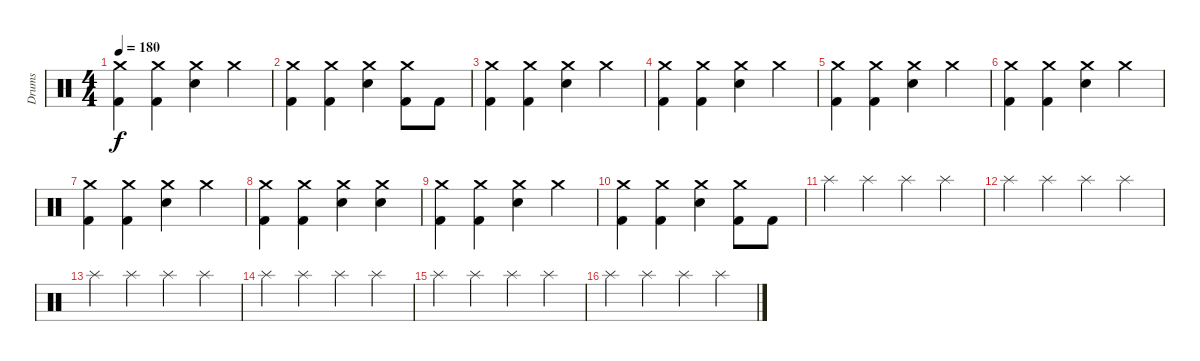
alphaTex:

\track ("Drums" "Drums") {instrument percussion}
\staff {score}
\articulation defaults
\ts (4 4)
\tempo 180
\clef neutral
\ks c
("Crash medium (hit)" "Kick (hit) 2").4{dy f} ("Crash medium (hit)" "Kick (hit) 2").4 ("Crash medium (hit)" "Snare (hit) 2").4 "Crash medium (hit)".4 |
("Crash medium (hit)" "Kick (hit) 2").4 ("Crash medium (hit)" "Kick (hit) 2").4 ("Crash medium (hit)" "Snare (hit) 2").4 ("Crash medium (hit)" "Kick (hit) 2").8 "Kick (hit) 2".8 |
("Crash medium (hit)" "Kick (hit) 2").4 ("Crash medium (hit)" "Kick (hit) 2").4 ("Crash medium (hit)" "Snare (hit) 2").4 "Crash medium (hit)".4 |
("Crash medium (hit)" "Kick (hit) 2").4 ("Crash medium (hit)" "Kick (hit) 2").4 ("Crash medium (hit)" "Snare (hit) 2").4 "Crash medium (hit)".4 |
("Crash medium (hit)" "Kick (hit) 2").4 ("Crash medium (hit)" "Kick (hit) 2").4 ("Crash medium (hit)" "Snare (hit) 2").4 "Crash medium (hit)".4 |
("Crash medium (hit)" "Kick (hit) 2").4 ("Crash medium (hit)" "Kick (hit) 2").4 ("Crash medium (hit)" "Snare (hit) 2").4 "Crash medium (hit)".4 |
("Crash medium (hit)" "Kick (hit) 2").4 ("Crash medium (hit)" "Kick (hit) 2").4 ("Crash medium (hit)" "Snare (hit) 2").4 "Crash medium (hit)".4 |
("Crash medium (hit)" "Kick (hit) 2").4 ("Crash medium (hit)" "Kick (hit) 2").4 ("Crash medium (hit)" "Snare (hit) 2").4 ("Crash medium (hit)" "Snare (hit) 2").4 |
("Crash medium (hit)" "Kick (hit) 2").4 ("Crash medium (hit)" "Kick (hit) 2").4 ("Crash medium (hit)" "Snare (hit) 2").4 "Crash medium (hit)".4 |
("Crash medium (hit)" "Kick (hit) 2").4 ("Crash medium (hit)" "Kick (hit) 2").4 ("Crash medium (hit)" "Snare (hit) 2").4 ("Crash medium (hit)" "Kick (hit) 2").8 "Kick (hit) 2".8 |
"Splash (hit)".4 "Splash (hit)".4 "Splash (hit)".4 "Splash (hit)".4 |
"Splash (hit)".4 "Splash (hit)".4 "Splash (hit)".4 "Splash (hit)".4 |
"Splash (hit)".4 "Splash (hit)".4 "Splash (hit)".4 "Splash (hit)".4 |
"Splash (hit)".4 "Splash (hit)".4 "Splash (hit)".4 "Splash (hit)".4 |
"Splash (hit)".4 "Splash (hit)".4 "Splash (hit)".4 "Splash (hit)".4 |
"Splash (hit)".4 "Splash (hit)".4 "Splash (hit)".4 "Splash (hit)".4
